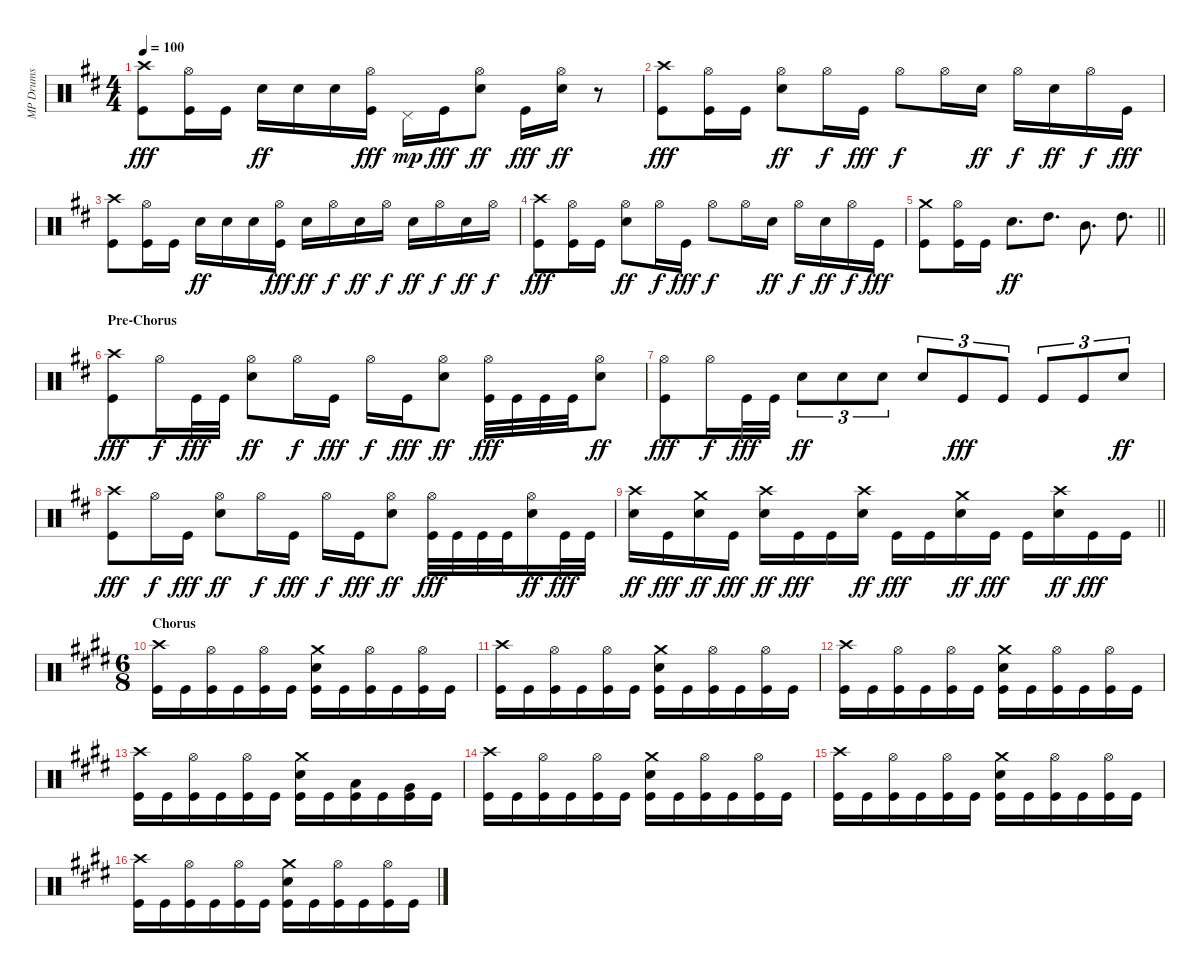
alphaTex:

\track ("MP Drums" "MP Drums") {instrument percussion}
\staff {score}
\articulation defaults
\ts (4 4)
\tempo 100
\clef neutral
\ks d
("Crash high (hit)" "Kick (hit)").8{dy fff} ("Hi-Hat (open)" "Kick (hit)").16 "Kick (hit)".16 "Snare (hit) 2".16{dy ff} "Snare (hit) 2".16 "Snare (hit) 2".16 ("Hi-Hat (open)" "Kick (hit)").16{dy fff} "Pedal Hi-Hat (hit)".16{dy mp} "Kick (hit)".16{dy fff} ("Hi-Hat (open)" "Snare (hit) 2").8{dy ff} "Kick (hit)".16{dy fff} ("Hi-Hat (open)" "Snare (hit) 2").16{dy ff} r.8 |
("Crash high (hit)" "Kick (hit)").8{dy fff} ("Hi-Hat (open)" "Kick (hit)").16 "Kick (hit)".16 ("Hi-Hat (open)" "Snare (hit) 2").8{dy ff} "Hi-Hat (open)".16{dy f} "Kick (hit)".16{dy fff} "Hi-Hat (open)".8{dy f} "Hi-Hat (open)".16 "Snare (hit) 2".16{dy ff} "Hi-Hat (open)".16{dy f} "Snare (hit) 2".16{dy ff} "Hi-Hat (open)".16{dy f} "Kick (hit)".16{dy fff} |
("Crash high (hit)" "Kick (hit)").8 ("Hi-Hat (open)" "Kick (hit)").16 "Kick (hit)".16 "Snare (hit) 2".16{dy ff} "Snare (hit) 2".16 "Snare (hit) 2".16 ("Hi-Hat (open)" "Kick (hit)").16{dy fff} "Snare (hit) 2".16{dy ff} "Hi-Hat (open)".16{dy f} "Snare (hit) 2".16{dy ff} "Hi-Hat (open)".16{dy f} "Snare (hit) 2".16{dy ff} "Hi-Hat (open)".16{dy f} "Snare (hit) 2".16{dy ff} "Hi-Hat (open)".16{dy f} |
("Crash high (hit)" "Kick (hit)").8{dy fff} ("Hi-Hat (open)" "Kick (hit)").16 "Kick (hit)".16 ("Hi-Hat (open)" "Snare (hit) 2").8{dy ff} "Hi-Hat (open)".16{dy f} "Kick (hit)".16{dy fff} "Hi-Hat (open)".8{dy f} "Hi-Hat (open)".16 "Snare (hit) 2".16{dy ff} "Hi-Hat (open)".16{dy f} "Snare (hit) 2".16{dy ff} "Hi-Hat (open)".16{dy f} "Kick (hit)".16{dy fff} |
\barLineRight lightlight
("Crash medium (hit)" "Kick (hit)").8 ("Hi-Hat (open)" "Kick (hit)").16 "Kick (hit)".16 "Snare (hit) 2".8{d dy ff} "High Tom (hit)".8{d} "Mid Tom (hit)".8{d} "High Tom (hit)".8{d} |
\section ("" "Pre-Chorus")
("Crash high (hit)" "Kick (hit)").8{dy fff} "Hi-Hat (open)".16{dy f} "Kick (hit)".32{dy fff} "Kick (hit)".32 ("Hi-Hat (open)" "Snare (hit) 2").8{dy ff} "Hi-Hat (open)".16{dy f} "Kick (hit)".16{dy fff} "Hi-Hat (open)".16{dy f} "Kick (hit)".16{dy fff} ("Hi-Hat (open)" "Snare (hit) 2").8{dy ff} ("Hi-Hat (open)" "Kick (hit)").32{dy fff} "Kick (hit)".32 "Kick (hit)".32 "Kick (hit)".32 ("Hi-Hat (open)" "Snare (hit) 2").8{dy ff} |
("Hi-Hat (open)" "Kick (hit)").8{dy fff} "Hi-Hat (open)".16{dy f} "Kick (hit)".32{dy fff} "Kick (hit)".32 "Snare (hit) 2".8{tu (3 2) dy ff} "Snare (hit) 2".8{tu (3 2)} "Snare (hit) 2".8{tu (3 2)} "Snare (hit) 2".8{tu (3 2)} "Kick (hit)".8{tu (3 2) dy fff} "Kick (hit)".8{tu (3 2)} "Kick (hit)".8{tu (3 2)} "Kick (hit)".8{tu (3 2)} "Snare (hit) 2".8{tu (3 2) dy ff} |
("Crash high (hit)" "Kick (hit)").8{dy fff} "Hi-Hat (open)".16{dy f} "Kick (hit)".16{dy fff} ("Hi-Hat (open)" "Snare (hit) 2").8{dy ff} "Hi-Hat (open)".16{dy f} "Kick (hit)".16{dy fff} "Hi-Hat (open)".16{dy f} "Kick (hit)".16{dy fff} ("Hi-Hat (open)" "Snare (hit) 2").8{dy ff} ("Hi-Hat (open)" "Kick (hit)").32{dy fff} "Kick (hit)".32 "Kick (hit)".32 "Kick (hit)".32 ("Hi-Hat (open)" "Snare (hit) 2").16{dy ff} "Kick (hit)".32{dy fff} "Kick (hit)".32 |
\barLineRight lightlight
("Crash high (hit)" "Snare (hit) 2").16{dy ff} "Kick (hit)".16{dy fff} ("Crash medium (hit)" "Snare (hit) 2").16{dy ff} "Kick (hit)".16{dy fff} ("Crash high (hit)" "Snare (hit) 2").16{dy ff} "Kick (hit)".16{dy fff} "Kick (hit)".16 ("Crash high (hit)" "Snare (hit) 2").16{dy ff} "Kick (hit)".16{dy fff} "Kick (hit)".16 ("Crash medium (hit)" "Snare (hit) 2").16{dy ff} "Kick (hit)".16{dy fff} "Kick (hit)".16 ("Crash high (hit)" "Snare (hit) 2").16{dy ff} "Kick (hit)".16{dy fff} "Kick (hit)".16 |
\ts (6 8)
\section ("" "Chorus")
\ks e
("Crash high (hit)" "Kick (hit)").16 "Kick (hit)".16 ("Hi-Hat (open)" "Kick (hit)").16 "Kick (hit)".16 ("Hi-Hat (open)" "Kick (hit)").16 "Kick (hit)".16 ("Crash medium (hit)" "Snare (hit) 2" "Kick (hit)").16 "Kick (hit)".16 ("Hi-Hat (open)" "Kick (hit)").16 "Kick (hit)".16 ("Hi-Hat (open)" "Kick (hit)").16 "Kick (hit)".16 |
("Crash high (hit)" "Kick (hit)").16 "Kick (hit)".16 ("Hi-Hat (open)" "Kick (hit)").16 "Kick (hit)".16 ("Hi-Hat (open)" "Kick (hit)").16 "Kick (hit)".16 ("Crash medium (hit)" "Snare (hit) 2" "Kick (hit)").16 "Kick (hit)".16 ("Hi-Hat (open)" "Kick (hit)").16 "Kick (hit)".16 ("Hi-Hat (open)" "Kick (hit)").16 "Kick (hit)".16 |
("Crash high (hit)" "Kick (hit)").16 "Kick (hit)".16 ("Hi-Hat (open)" "Kick (hit)").16 "Kick (hit)".16 ("Hi-Hat (open)" "Kick (hit)").16 "Kick (hit)".16 ("Crash medium (hit)" "Snare (hit) 2" "Kick (hit)").16 "Kick (hit)".16 ("Hi-Hat (open)" "Kick (hit)").16 "Kick (hit)".16 ("Hi-Hat (open)" "Kick (hit)").16 "Kick (hit)".16 |
("Crash high (hit)" "Kick (hit)").16 "Kick (hit)".16 ("Hi-Hat (open)" "Kick (hit)").16 "Kick (hit)".16 ("Hi-Hat (open)" "Kick (hit)").16 "Kick (hit)".16 ("Crash medium (hit)" "Snare (hit) 2" "Kick (hit)").16 "Kick (hit)".16 ("Low Tom (hit)" "Kick (hit)").16 "Kick (hit)".16 ("Very Low Tom (hit)" "Kick (hit)").16 "Kick (hit)".16 |
("Crash high (hit)" "Kick (hit)").16 "Kick (hit)".16 ("Hi-Hat (open)" "Kick (hit)").16 "Kick (hit)".16 ("Hi-Hat (open)" "Kick (hit)").16 "Kick (hit)".16 ("Crash medium (hit)" "Snare (hit) 2" "Kick (hit)").16 "Kick (hit)".16 ("Hi-Hat (open)" "Kick (hit)").16 "Kick (hit)".16 ("Hi-Hat (open)" "Kick (hit)").16 "Kick (hit)".16 |
("Crash high (hit)" "Kick (hit)").16 "Kick (hit)".16 ("Hi-Hat (open)" "Kick (hit)").16 "Kick (hit)".16 ("Hi-Hat (open)" "Kick (hit)").16 "Kick (hit)".16 ("Crash medium (hit)" "Snare (hit) 2" "Kick (hit)").16 "Kick (hit)".16 ("Hi-Hat (open)" "Kick (hit)").16 "Kick (hit)".16 ("Hi-Hat (open)" "Kick (hit)").16 "Kick (hit)".16 |
("Crash high (hit)" "Kick (hit)").16 "Kick (hit)".16 ("Hi-Hat (open)" "Kick (hit)").16 "Kick (hit)".16 ("Hi-Hat (open)" "Kick (hit)").16 "Kick (hit)".16 ("Crash medium (hit)" "Snare (hit) 2" "Kick (hit)").16 "Kick (hit)".16 ("Hi-Hat (open)" "Kick (hit)").16 "Kick (hit)".16 ("Hi-Hat (open)" "Kick (hit)").16 "Kick (hit)".16
